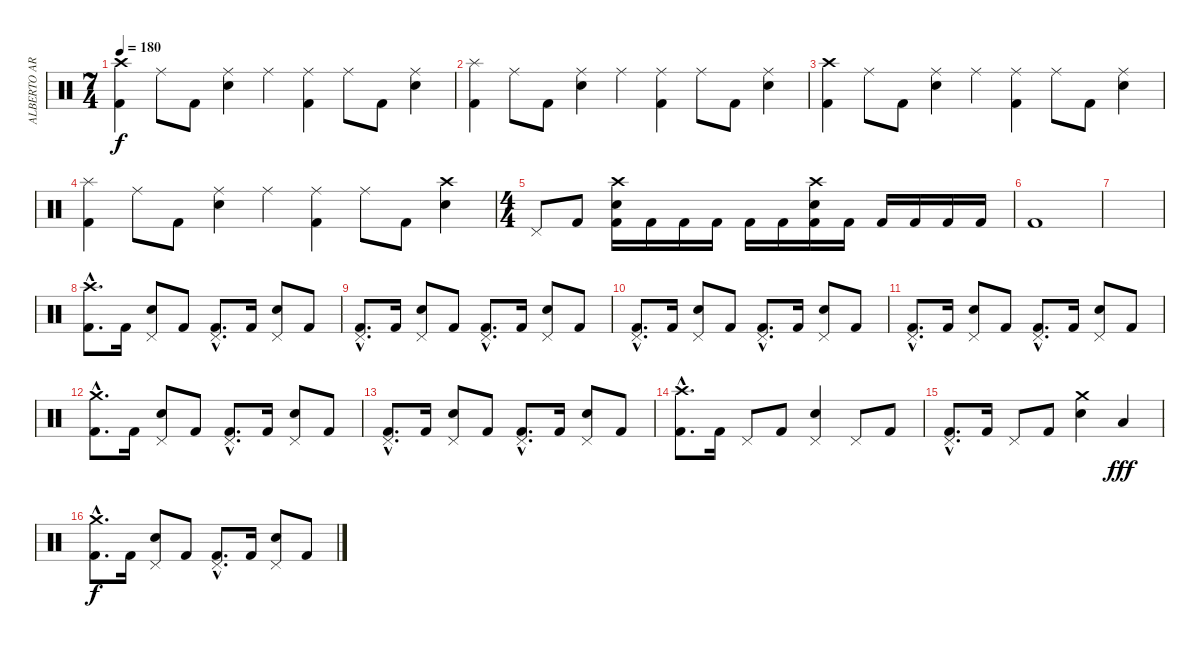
\track ("ALBERTO ARDINES" "ALBERTO AR") {instrument percussion}
\staff {score}
\articulation defaults
\ts (7 4)
\tempo 180
\clef neutral
\ks c
("Crash high (hit)" "Kick (hit) 2").4{dy f} "Ride (middle)".8 "Kick (hit) 2".8 ("Ride (middle)" "Electric Snare (hit)").4 "Ride (middle)".4 ("Ride (middle)" "Kick (hit) 2").4 "Ride (middle)".8 "Kick (hit) 2".8 ("Ride (middle)" "Electric Snare (hit)").4 |
("Splash (hit)" "Kick (hit) 2").4 "Ride (middle)".8 "Kick (hit) 2".8 ("Ride (middle)" "Electric Snare (hit)").4 "Ride (middle)".4 ("Ride (middle)" "Kick (hit) 2").4 "Ride (middle)".8 "Kick (hit) 2".8 ("Ride (middle)" "Electric Snare (hit)").4 |
("Crash high (hit)" "Kick (hit) 2").4 "Ride (middle)".8 "Kick (hit) 2".8 ("Ride (middle)" "Electric Snare (hit)").4 "Ride (middle)".4 ("Ride (middle)" "Kick (hit) 2").4 "Ride (middle)".8 "Kick (hit) 2".8 ("Ride (middle)" "Electric Snare (hit)").4 |
("Splash (hit)" "Kick (hit) 2").4 "Ride (middle)".8 "Kick (hit) 2".8 ("Ride (middle)" "Electric Snare (hit)").4 "Ride (middle)".4 ("Ride (middle)" "Kick (hit) 2").4 "Ride (middle)".8 "Kick (hit) 2".8 ("Crash high (hit)" "Electric Snare (hit)").4 |
\ts (4 4)
"Pedal Hi-Hat (hit)".8 "Kick (hit) 2".8 ("Crash high (hit)" "Electric Snare (hit)" "Kick (hit) 2").16 "Kick (hit) 2".16 "Kick (hit) 2".16 "Kick (hit) 2".16 "Kick (hit) 2".16 "Kick (hit) 2".16 ("Crash high (hit)" "Electric Snare (hit)" "Kick (hit) 2").16 "Kick (hit) 2".16 "Kick (hit) 2".16 "Kick (hit) 2".16 "Kick (hit) 2".16 "Kick (hit) 2".16 |
"Kick (hit) 2".1 |
|
("Crash high (hit)"{hac} "Kick (hit) 2"{hac}).8{d} "Kick (hit) 2".16 ("Pedal Hi-Hat (hit)" "Electric Snare (hit)").8 "Kick (hit) 2".8 ("Pedal Hi-Hat (hit)"{hac} "Kick (hit) 2"{hac}).8{d} "Kick (hit) 2".16 ("Pedal Hi-Hat (hit)" "Electric Snare (hit)").8 "Kick (hit) 2".8 |
("Pedal Hi-Hat (hit)"{hac} "Kick (hit) 2"{hac}).8{d} "Kick (hit) 2".16 ("Pedal Hi-Hat (hit)" "Electric Snare (hit)").8 "Kick (hit) 2".8 ("Pedal Hi-Hat (hit)"{hac} "Kick (hit) 2"{hac}).8{d} "Kick (hit) 2".16 ("Pedal Hi-Hat (hit)" "Electric Snare (hit)").8 "Kick (hit) 2".8 |
("Pedal Hi-Hat (hit)"{hac} "Kick (hit) 2"{hac}).8{d} "Kick (hit) 2".16 ("Pedal Hi-Hat (hit)" "Electric Snare (hit)").8 "Kick (hit) 2".8 ("Pedal Hi-Hat (hit)"{hac} "Kick (hit) 2"{hac}).8{d} "Kick (hit) 2".16 ("Pedal Hi-Hat (hit)" "Electric Snare (hit)").8 "Kick (hit) 2".8 |
("Pedal Hi-Hat (hit)"{hac} "Kick (hit) 2"{hac}).8{d} "Kick (hit) 2".16 ("Pedal Hi-Hat (hit)" "Electric Snare (hit)").8 "Kick (hit) 2".8 ("Pedal Hi-Hat (hit)"{hac} "Kick (hit) 2"{hac}).8{d} "Kick (hit) 2".16 ("Pedal Hi-Hat (hit)" "Electric Snare (hit)").8 "Kick (hit) 2".8 |
("Crash medium (hit)"{hac} "Kick (hit) 2"{hac}).8{d} "Kick (hit) 2".16 ("Pedal Hi-Hat (hit)" "Electric Snare (hit)").8 "Kick (hit) 2".8 ("Pedal Hi-Hat (hit)"{hac} "Kick (hit) 2"{hac}).8{d} "Kick (hit) 2".16 ("Pedal Hi-Hat (hit)" "Electric Snare (hit)").8 "Kick (hit) 2".8 |
("Pedal Hi-Hat (hit)"{hac} "Kick (hit) 2"{hac}).8{d} "Kick (hit) 2".16 ("Pedal Hi-Hat (hit)" "Electric Snare (hit)").8 "Kick (hit) 2".8 ("Pedal Hi-Hat (hit)"{hac} "Kick (hit) 2"{hac}).8{d} "Kick (hit) 2".16 ("Pedal Hi-Hat (hit)" "Electric Snare (hit)").8 "Kick (hit) 2".8 |
("Crash high (hit)"{hac} "Kick (hit) 2"{hac}).8{d} "Kick (hit) 2".16 "Pedal Hi-Hat (hit)".8 "Kick (hit) 2".8 ("Pedal Hi-Hat (hit)" "Electric Snare (hit)").4 "Pedal Hi-Hat (hit)".8 "Kick (hit) 2".8 |
("Pedal Hi-Hat (hit)"{hac} "Kick (hit) 2"{hac}).8{d} "Kick (hit) 2".16 "Pedal Hi-Hat (hit)".8 "Kick (hit) 2".8 ("Crash medium (hit)" "Electric Snare (hit)").4 "Low Tom (hit)".4{dy fff} |
("Crash medium (hit)"{hac} "Kick (hit) 2"{hac}).8{d dy f} "Kick (hit) 2".16 ("Pedal Hi-Hat (hit)" "Electric Snare (hit)").8 "Kick (hit) 2".8 ("Pedal Hi-Hat (hit)"{hac} "Kick (hit) 2"{hac}).8{d} "Kick (hit) 2".16 ("Pedal Hi-Hat (hit)" "Electric Snare (hit)").8 "Kick (hit) 2".8
